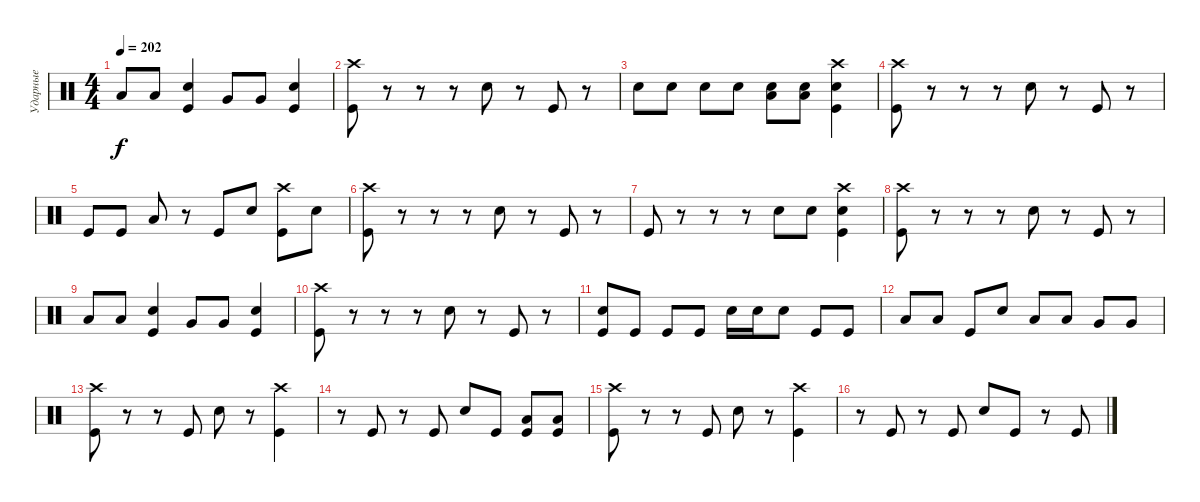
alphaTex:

\track ("Ударные" "Ударные") {instrument percussion}
\staff {score}
\articulation defaults
\ts (4 4)
\tempo 202
\clef neutral
\ks c "Low Tom (hit)".8{dy f} "Low Tom (hit)".8
("Electric Snare (hit)" "Kick (hit)").4 "Very Low Tom (hit)".8 "Very Low Tom (hit)".8 ("Electric Snare (hit)" "Kick (hit)").4 |
("Crash high (hit)" "Kick (hit)").8 r.8 r.8 r.8 "Electric Snare (hit)".8 r.8 "Kick (hit)".8 r.8 |
"Electric Snare (hit)".8 "Electric Snare (hit)".8 "Electric Snare (hit)".8 "Electric Snare (hit)".8 ("Low Tom (hit)" "Electric Snare (hit)").8 ("Low Tom (hit)" "Electric Snare (hit)").8 ("Crash high (hit)" "Electric Snare (hit)" "Kick (hit)").4 |
("Crash high (hit)" "Kick (hit)").8 r.8 r.8 r.8 "Electric Snare (hit)".8 r.8 "Kick (hit)".8 r.8 |
"Kick (hit)".8 "Kick (hit)".8 "Low Tom (hit)".8 r.8 "Kick (hit)".8 "Electric Snare (hit)".8 ("Crash high (hit)" "Kick (hit)").8 "Electric Snare (hit)".8 |
("Crash high (hit)" "Kick (hit)").8 r.8 r.8 r.8 "Electric Snare (hit)".8 r.8 "Kick (hit)".8 r.8 |
"Kick (hit)".8 r.8 r.8 r.8 "Electric Snare (hit)".8 "Electric Snare (hit)".8 ("Crash high (hit)" "Electric Snare (hit)" "Kick (hit)").4 |
("Crash high (hit)" "Kick (hit)").8 r.8 r.8 r.8 "Electric Snare (hit)".8 r.8 "Kick (hit)".8 r.8 |
"Low Tom (hit)".8 "Low Tom (hit)".8 ("Electric Snare (hit)" "Kick (hit)").4 "Very Low Tom (hit)".8 "Very Low Tom (hit)".8 ("Electric Snare (hit)" "Kick (hit)").4 |
("Crash high (hit)" "Kick (hit)").8 r.8 r.8 r.8 "Electric Snare (hit)".8 r.8 "Kick (hit)".8 r.8 |
("Electric Snare (hit)" "Kick (hit)").8 "Kick (hit)".8 "Kick (hit)".8 "Kick (hit)".8 "Electric Snare (hit)".16 "Electric Snare (hit)".16 "Electric Snare (hit)".8 "Kick (hit)".8 "Kick (hit)".8 |
"Low Tom (hit)".8 "Low Tom (hit)".8 "Kick (hit)".8 "Electric Snare (hit)".8 "Low Tom (hit)".8 "Low Tom (hit)".8 "Very Low Tom (hit)".8 "Very Low Tom (hit)".8 |
("Crash high (hit)" "Kick (hit)").8 r.8 r.8 "Kick (hit)".8 "Electric Snare (hit)".8 r.8 ("Crash high (hit)" "Kick (hit)").4 |
r.8 "Kick (hit)".8 r.8 "Kick (hit)".8 "Electric Snare (hit)".8 "Kick (hit)".8 ("Low Tom (hit)" "Kick (hit)").8 ("Low Tom (hit)" "Kick (hit)").8 |
("Crash high (hit)" "Kick (hit)").8 r.8 r.8 "Kick (hit)".8 "Electric Snare (hit)".8 r.8 ("Crash high (hit)" "Kick (hit)").4 |
r.8 "Kick (hit)".8 r.8 "Kick (hit)".8 "Electric Snare (hit)".8 "Kick (hit)".8 r.8 "Kick (hit)".8
